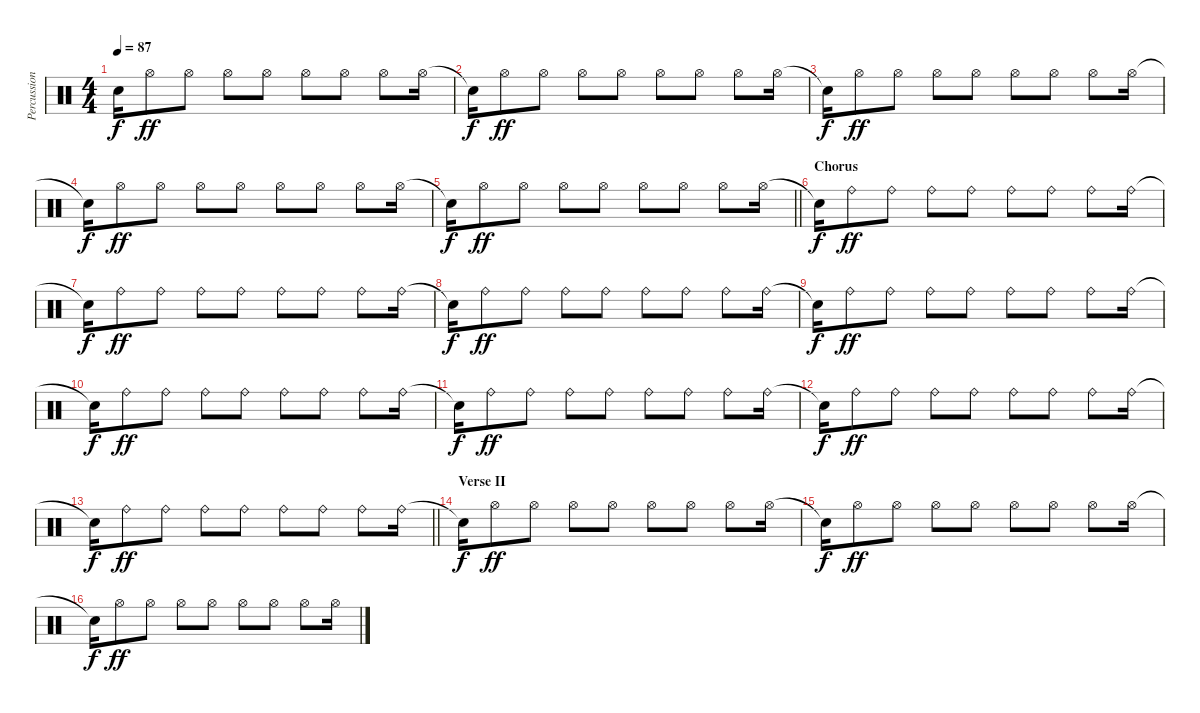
\track ("Percussion" "Percussion") {instrument percussion}
\staff {score}
\articulation defaults
\ts (4 4)
\tempo 87
\clef neutral
\ks c "Snare (hit)"{t}.16{dy f} "Hi-Hat (open)".8{dy ff} "Hi-Hat (open)".8 "Hi-Hat (open)".8 "Hi-Hat (open)".8 "Hi-Hat (open)".8 "Hi-Hat (open)".8 "Hi-Hat (open)".8 "Hi-Hat (open)".16
|
"Snare (hit)"{t}.16{dy f} "Hi-Hat (open)".8{dy ff} "Hi-Hat (open)".8 "Hi-Hat (open)".8 "Hi-Hat (open)".8 "Hi-Hat (open)".8 "Hi-Hat (open)".8 "Hi-Hat (open)".8 "Hi-Hat (open)".16 |
"Snare (hit)"{t}.16{dy f} "Hi-Hat (open)".8{dy ff} "Hi-Hat (open)".8 "Hi-Hat (open)".8 "Hi-Hat (open)".8 "Hi-Hat (open)".8 "Hi-Hat (open)".8 "Hi-Hat (open)".8 "Hi-Hat (open)".16 |
"Snare (hit)"{t}.16{dy f} "Hi-Hat (open)".8{dy ff} "Hi-Hat (open)".8 "Hi-Hat (open)".8 "Hi-Hat (open)".8 "Hi-Hat (open)".8 "Hi-Hat (open)".8 "Hi-Hat (open)".8 "Hi-Hat (open)".16 |
\barLineRight lightlight "Snare (hit)"{t}.16{dy f} "Hi-Hat (open)".8{dy ff} "Hi-Hat (open)".8 "Hi-Hat (open)".8 "Hi-Hat (open)".8 "Hi-Hat (open)".8 "Hi-Hat (open)".8 "Hi-Hat (open)".8 "Hi-Hat (open)".16
|
\section ("" "Chorus")
"Snare (hit)"{t}.16{dy f} "Ride (bell)".8{dy ff} "Ride (bell)".8 "Ride (bell)".8 "Ride (bell)".8 "Ride (bell)".8 "Ride (bell)".8 "Ride (bell)".8 "Ride (bell)".16 |
"Snare (hit)"{t}.16{dy f} "Ride (bell)".8{dy ff} "Ride (bell)".8 "Ride (bell)".8 "Ride (bell)".8 "Ride (bell)".8 "Ride (bell)".8 "Ride (bell)".8 "Ride (bell)".16 |
"Snare (hit)"{t}.16{dy f} "Ride (bell)".8{dy ff} "Ride (bell)".8 "Ride (bell)".8 "Ride (bell)".8 "Ride (bell)".8 "Ride (bell)".8 "Ride (bell)".8 "Ride (bell)".16 |
"Snare (hit)"{t}.16{dy f} "Ride (bell)".8{dy ff} "Ride (bell)".8 "Ride (bell)".8 "Ride (bell)".8 "Ride (bell)".8 "Ride (bell)".8 "Ride (bell)".8 "Ride (bell)".16 |
"Snare (hit)"{t}.16{dy f} "Ride (bell)".8{dy ff} "Ride (bell)".8 "Ride (bell)".8 "Ride (bell)".8 "Ride (bell)".8 "Ride (bell)".8 "Ride (bell)".8 "Ride (bell)".16 |
"Snare (hit)"{t}.16{dy f} "Ride (bell)".8{dy ff} "Ride (bell)".8 "Ride (bell)".8 "Ride (bell)".8 "Ride (bell)".8 "Ride (bell)".8 "Ride (bell)".8 "Ride (bell)".16 |
"Snare (hit)"{t}.16{dy f} "Ride (bell)".8{dy ff} "Ride (bell)".8 "Ride (bell)".8 "Ride (bell)".8 "Ride (bell)".8 "Ride (bell)".8 "Ride (bell)".8 "Ride (bell)".16 |
\barLineRight lightlight "Snare (hit)"{t}.16{dy f} "Ride (bell)".8{dy ff} "Ride (bell)".8 "Ride (bell)".8 "Ride (bell)".8 "Ride (bell)".8 "Ride (bell)".8 "Ride (bell)".8 "Ride (bell)".16
|
\section ("" "Verse II")
"Snare (hit)"{t}.16{dy f} "Hi-Hat (open)".8{dy ff} "Hi-Hat (open)".8 "Hi-Hat (open)".8 "Hi-Hat (open)".8 "Hi-Hat (open)".8 "Hi-Hat (open)".8 "Hi-Hat (open)".8 "Hi-Hat (open)".16 |
"Snare (hit)"{t}.16{dy f} "Hi-Hat (open)".8{dy ff} "Hi-Hat (open)".8 "Hi-Hat (open)".8 "Hi-Hat (open)".8 "Hi-Hat (open)".8 "Hi-Hat (open)".8 "Hi-Hat (open)".8 "Hi-Hat (open)".16 |
"Snare (hit)"{t}.16{dy f} "Hi-Hat (open)".8{dy ff} "Hi-Hat (open)".8 "Hi-Hat (open)".8 "Hi-Hat (open)".8 "Hi-Hat (open)".8 "Hi-Hat (open)".8 "Hi-Hat (open)".8 "Hi-Hat (open)".16
